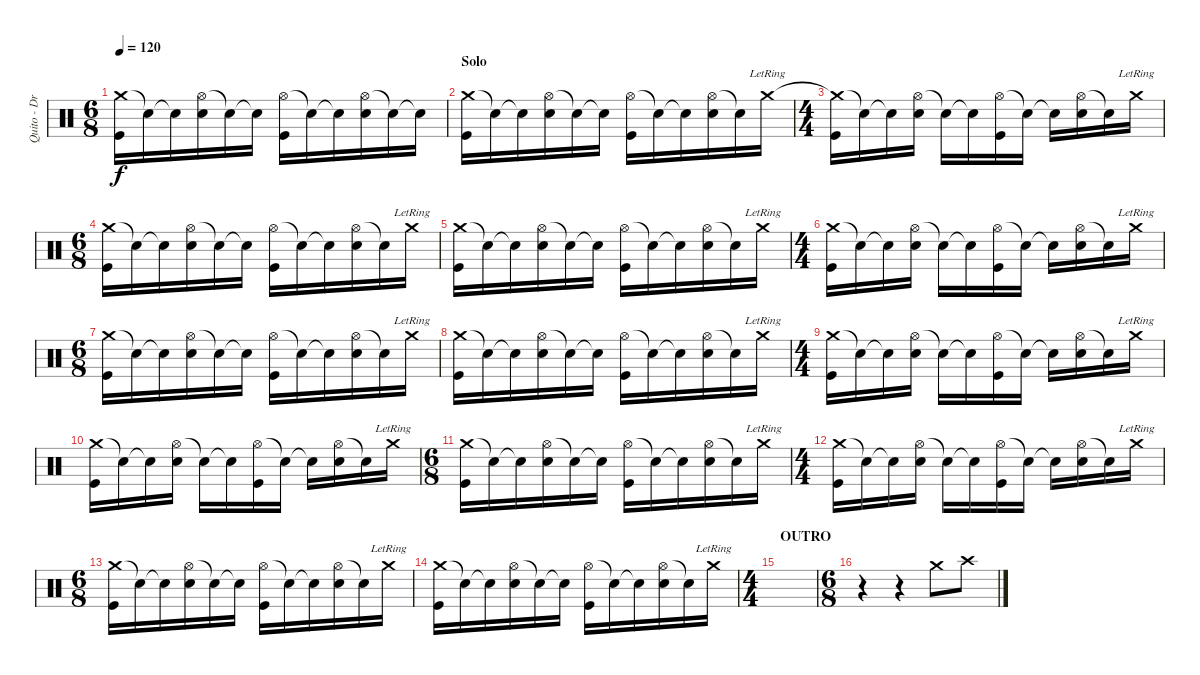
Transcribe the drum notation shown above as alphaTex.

\track ("Quito - Drums" "Quito - Dr") {instrument percussion}
\staff {score}
\articulation defaults
\ts (6 8)
\tempo 120
\clef neutral
\ks c
("Crash medium (hit)" "Kick (hit)").16{dy f} "Snare (hit)"{t}.16 "Snare (hit)"{t}.16 ("Hi-Hat (open)" "Snare (hit) 2").16 "Snare (hit)"{t}.16 "Snare (hit)"{t}.16 ("Hi-Hat (open)" "Kick (hit)").16 "Snare (hit)"{t}.16 "Snare (hit)"{t}.16 ("Hi-Hat (open)" "Snare (hit) 2").16 "Snare (hit)"{t}.16 "Snare (hit)"{t}.16 |
\section ("" "Solo")
("Crash medium (hit)" "Kick (hit)").16 "Snare (hit)"{t}.16 "Snare (hit)"{t}.16 ("Hi-Hat (open)" "Snare (hit) 2").16 "Snare (hit)"{t}.16 "Snare (hit)"{t}.16 ("Hi-Hat (open)" "Kick (hit)").16 "Snare (hit)"{t}.16 "Snare (hit)"{t}.16 ("Hi-Hat (open)" "Snare (hit) 2").16 "Snare (hit)"{t}.16 "Crash medium (hit)"{lr}.16 |
\ts (4 4)
("Crash medium (hit)"{t} "Kick (hit)").16 "Snare (hit)"{t}.16 "Snare (hit)"{t}.16 ("Hi-Hat (open)" "Snare (hit) 2").16 "Snare (hit)"{t}.16 "Snare (hit)"{t}.16 ("Hi-Hat (open)" "Kick (hit)").16 "Snare (hit)"{t}.16 "Snare (hit)"{t}.16 ("Hi-Hat (open)" "Snare (hit) 2").16 "Snare (hit)"{t}.16 "Crash medium (hit)"{lr}.16 |
\ts (6 8)
("Crash medium (hit)" "Kick (hit)").16 "Snare (hit)"{t}.16 "Snare (hit)"{t}.16 ("Hi-Hat (open)" "Snare (hit) 2").16 "Snare (hit)"{t}.16 "Snare (hit)"{t}.16 ("Hi-Hat (open)" "Kick (hit)").16 "Snare (hit)"{t}.16 "Snare (hit)"{t}.16 ("Hi-Hat (open)" "Snare (hit) 2").16 "Snare (hit)"{t}.16 "Crash medium (hit)"{lr}.16 |
("Crash medium (hit)" "Kick (hit)").16 "Snare (hit)"{t}.16 "Snare (hit)"{t}.16 ("Hi-Hat (open)" "Snare (hit) 2").16 "Snare (hit)"{t}.16 "Snare (hit)"{t}.16 ("Hi-Hat (open)" "Kick (hit)").16 "Snare (hit)"{t}.16 "Snare (hit)"{t}.16 ("Hi-Hat (open)" "Snare (hit) 2").16 "Snare (hit)"{t}.16 "Crash medium (hit)"{lr}.16 |
\ts (4 4)
("Crash medium (hit)" "Kick (hit)").16 "Snare (hit)"{t}.16 "Snare (hit)"{t}.16 ("Hi-Hat (open)" "Snare (hit) 2").16 "Snare (hit)"{t}.16 "Snare (hit)"{t}.16 ("Hi-Hat (open)" "Kick (hit)").16 "Snare (hit)"{t}.16 "Snare (hit)"{t}.16 ("Hi-Hat (open)" "Snare (hit) 2").16 "Snare (hit)"{t}.16 "Crash medium (hit)"{lr}.16 |
\ts (6 8)
("Crash medium (hit)" "Kick (hit)").16 "Snare (hit)"{t}.16 "Snare (hit)"{t}.16 ("Hi-Hat (open)" "Snare (hit) 2").16 "Snare (hit)"{t}.16 "Snare (hit)"{t}.16 ("Hi-Hat (open)" "Kick (hit)").16 "Snare (hit)"{t}.16 "Snare (hit)"{t}.16 ("Hi-Hat (open)" "Snare (hit) 2").16 "Snare (hit)"{t}.16 "Crash medium (hit)"{lr}.16 |
("Crash medium (hit)" "Kick (hit)").16 "Snare (hit)"{t}.16 "Snare (hit)"{t}.16 ("Hi-Hat (open)" "Snare (hit) 2").16 "Snare (hit)"{t}.16 "Snare (hit)"{t}.16 ("Hi-Hat (open)" "Kick (hit)").16 "Snare (hit)"{t}.16 "Snare (hit)"{t}.16 ("Hi-Hat (open)" "Snare (hit) 2").16 "Snare (hit)"{t}.16 "Crash medium (hit)"{lr}.16 |
\ts (4 4)
("Crash medium (hit)" "Kick (hit)").16 "Snare (hit)"{t}.16 "Snare (hit)"{t}.16 ("Hi-Hat (open)" "Snare (hit) 2").16 "Snare (hit)"{t}.16 "Snare (hit)"{t}.16 ("Hi-Hat (open)" "Kick (hit)").16 "Snare (hit)"{t}.16 "Snare (hit)"{t}.16 ("Hi-Hat (open)" "Snare (hit) 2").16 "Snare (hit)"{t}.16 "Crash medium (hit)"{lr}.16 |
("Crash medium (hit)" "Kick (hit)").16 "Snare (hit)"{t}.16 "Snare (hit)"{t}.16 ("Hi-Hat (open)" "Snare (hit) 2").16 "Snare (hit)"{t}.16 "Snare (hit)"{t}.16 ("Hi-Hat (open)" "Kick (hit)").16 "Snare (hit)"{t}.16 "Snare (hit)"{t}.16 ("Hi-Hat (open)" "Snare (hit) 2").16 "Snare (hit)"{t}.16 "Crash medium (hit)"{lr}.16 |
\ts (6 8)
("Crash medium (hit)" "Kick (hit)").16 "Snare (hit)"{t}.16 "Snare (hit)"{t}.16 ("Hi-Hat (open)" "Snare (hit) 2").16 "Snare (hit)"{t}.16 "Snare (hit)"{t}.16 ("Hi-Hat (open)" "Kick (hit)").16 "Snare (hit)"{t}.16 "Snare (hit)"{t}.16 ("Hi-Hat (open)" "Snare (hit) 2").16 "Snare (hit)"{t}.16 "Crash medium (hit)"{lr}.16 |
\ts (4 4)
("Crash medium (hit)" "Kick (hit)").16 "Snare (hit)"{t}.16 "Snare (hit)"{t}.16 ("Hi-Hat (open)" "Snare (hit) 2").16 "Snare (hit)"{t}.16 "Snare (hit)"{t}.16 ("Hi-Hat (open)" "Kick (hit)").16 "Snare (hit)"{t}.16 "Snare (hit)"{t}.16 ("Hi-Hat (open)" "Snare (hit) 2").16 "Snare (hit)"{t}.16 "Crash medium (hit)"{lr}.16 |
\ts (6 8)
("Crash medium (hit)" "Kick (hit)").16 "Snare (hit)"{t}.16 "Snare (hit)"{t}.16 ("Hi-Hat (open)" "Snare (hit) 2").16 "Snare (hit)"{t}.16 "Snare (hit)"{t}.16 ("Hi-Hat (open)" "Kick (hit)").16 "Snare (hit)"{t}.16 "Snare (hit)"{t}.16 ("Hi-Hat (open)" "Snare (hit) 2").16 "Snare (hit)"{t}.16 "Crash medium (hit)"{lr}.16 |
("Crash medium (hit)" "Kick (hit)").16 "Snare (hit)"{t}.16 "Snare (hit)"{t}.16 ("Hi-Hat (open)" "Snare (hit) 2").16 "Snare (hit)"{t}.16 "Snare (hit)"{t}.16 ("Hi-Hat (open)" "Kick (hit)").16 "Snare (hit)"{t}.16 "Snare (hit)"{t}.16 ("Hi-Hat (open)" "Snare (hit) 2").16 "Snare (hit)"{t}.16 "Crash medium (hit)"{lr}.16 |
\ts (4 4)
\section ("" "OUTRO")
|
\ts (6 8)
r.4 r.4 "Crash medium (hit)".8 "Crash high (hit)".8
